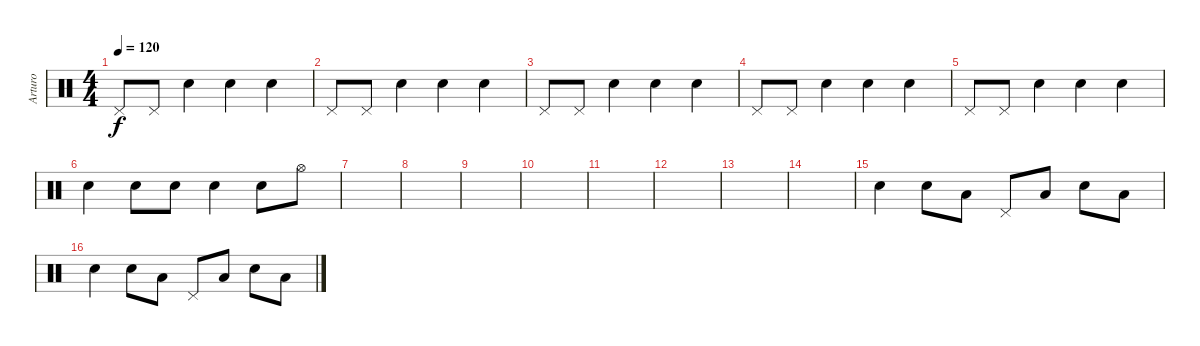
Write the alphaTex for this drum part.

\track ("Arturo" "Arturo") {instrument percussion}
\staff {score}
\articulation defaults
\ts (4 4)
\tempo 120
\clef neutral
\ks c "Pedal Hi-Hat (hit)".8{dy f} "Pedal Hi-Hat (hit)".8 "Snare (hit) 2".4 "Electric Snare (hit)".4 "Snare (hit) 2".4
|
"Pedal Hi-Hat (hit)".8 "Pedal Hi-Hat (hit)".8 "Snare (hit) 2".4 "Electric Snare (hit)".4 "Snare (hit) 2".4 |
"Pedal Hi-Hat (hit)".8 "Pedal Hi-Hat (hit)".8 "Snare (hit) 2".4 "Electric Snare (hit)".4 "Snare (hit) 2".4 |
"Pedal Hi-Hat (hit)".8 "Pedal Hi-Hat (hit)".8 "Snare (hit) 2".4 "Electric Snare (hit)".4 "Snare (hit) 2".4 |
"Pedal Hi-Hat (hit)".8 "Pedal Hi-Hat (hit)".8 "Snare (hit) 2".4 "Electric Snare (hit)".4 "Snare (hit) 2".4 |
"Snare (hit) 2".4 "Electric Snare (hit)".8 "Electric Snare (hit)".8 "Snare (hit) 2".4 "Electric Snare (hit)".8 "Hi-Hat (open)".8 |
|
|
|
|
|
|
|
|
"Snare (hit) 2".4 "Snare (hit) 2".8 "Low Tom (hit)".8 "Pedal Hi-Hat (hit)".8 "Low Tom (hit)".8 "Snare (hit) 2".8 "Low Tom (hit)".8 |
"Snare (hit) 2".4 "Snare (hit) 2".8 "Low Tom (hit)".8 "Pedal Hi-Hat (hit)".8 "Low Tom (hit)".8 "Snare (hit) 2".8 "Low Tom (hit)".8
